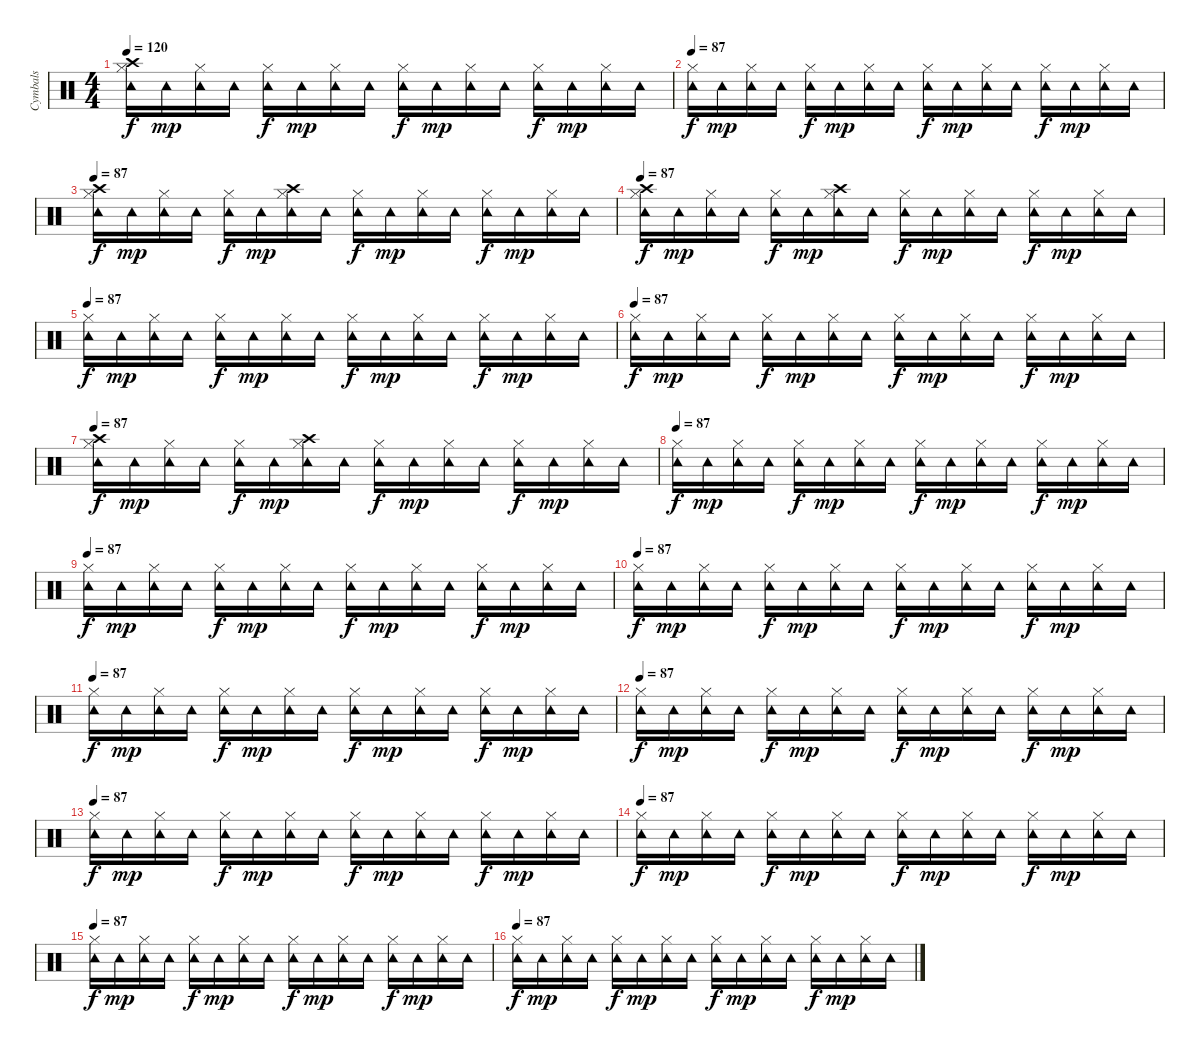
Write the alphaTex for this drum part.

\track ("Cymbals" "Cymbals") {instrument percussion}
\staff {score}
\articulation defaults
\ts (4 4)
\tempo 120
\tempo 87
\tempo 120
\clef neutral
\ks c
("Crash high (hit)" "Hi-Hat (closed)" "Tambourine (hit)").16{dy f} "Tambourine (hit)".16{dy mp} ("Hi-Hat (closed)" "Tambourine (hit)").16 "Tambourine (hit)".16 ("Hi-Hat (closed)" "Tambourine (hit)").16{dy f} "Tambourine (hit)".16{dy mp} ("Hi-Hat (closed)" "Tambourine (hit)").16 "Tambourine (hit)".16 ("Hi-Hat (closed)" "Tambourine (hit)").16{dy f} "Tambourine (hit)".16{dy mp} ("Hi-Hat (closed)" "Tambourine (hit)").16 "Tambourine (hit)".16 ("Hi-Hat (closed)" "Tambourine (hit)").16{dy f} "Tambourine (hit)".16{dy mp} ("Hi-Hat (closed)" "Tambourine (hit)").16 "Tambourine (hit)".16 |
\tempo 87
("Hi-Hat (closed)" "Tambourine (hit)").16{dy f} "Tambourine (hit)".16{dy mp} ("Hi-Hat (closed)" "Tambourine (hit)").16 "Tambourine (hit)".16 ("Hi-Hat (closed)" "Tambourine (hit)").16{dy f} "Tambourine (hit)".16{dy mp} ("Hi-Hat (closed)" "Tambourine (hit)").16 "Tambourine (hit)".16 ("Hi-Hat (closed)" "Tambourine (hit)").16{dy f} "Tambourine (hit)".16{dy mp} ("Hi-Hat (closed)" "Tambourine (hit)").16 "Tambourine (hit)".16 ("Hi-Hat (closed)" "Tambourine (hit)").16{dy f} "Tambourine (hit)".16{dy mp} ("Hi-Hat (closed)" "Tambourine (hit)").16 "Tambourine (hit)".16 |
\tempo 87
("Crash high (hit)" "Hi-Hat (closed)" "Tambourine (hit)").16{dy f} "Tambourine (hit)".16{dy mp} ("Hi-Hat (closed)" "Tambourine (hit)").16 "Tambourine (hit)".16 ("Hi-Hat (closed)" "Tambourine (hit)").16{dy f} "Tambourine (hit)".16{dy mp} ("Crash high (hit)" "Hi-Hat (closed)" "Tambourine (hit)").16 "Tambourine (hit)".16 ("Hi-Hat (closed)" "Tambourine (hit)").16{dy f} "Tambourine (hit)".16{dy mp} ("Hi-Hat (closed)" "Tambourine (hit)").16 "Tambourine (hit)".16 ("Hi-Hat (closed)" "Tambourine (hit)").16{dy f} "Tambourine (hit)".16{dy mp} ("Hi-Hat (closed)" "Tambourine (hit)").16 "Tambourine (hit)".16 |
\tempo 87
("Crash high (hit)" "Hi-Hat (closed)" "Tambourine (hit)").16{dy f} "Tambourine (hit)".16{dy mp} ("Hi-Hat (closed)" "Tambourine (hit)").16 "Tambourine (hit)".16 ("Hi-Hat (closed)" "Tambourine (hit)").16{dy f} "Tambourine (hit)".16{dy mp} ("Crash high (hit)" "Hi-Hat (closed)" "Tambourine (hit)").16 "Tambourine (hit)".16 ("Hi-Hat (closed)" "Tambourine (hit)").16{dy f} "Tambourine (hit)".16{dy mp} ("Hi-Hat (closed)" "Tambourine (hit)").16 "Tambourine (hit)".16 ("Hi-Hat (closed)" "Tambourine (hit)").16{dy f} "Tambourine (hit)".16{dy mp} ("Hi-Hat (closed)" "Tambourine (hit)").16 "Tambourine (hit)".16 |
\tempo 87
("Hi-Hat (closed)" "Tambourine (hit)").16{dy f} "Tambourine (hit)".16{dy mp} ("Hi-Hat (closed)" "Tambourine (hit)").16 "Tambourine (hit)".16 ("Hi-Hat (closed)" "Tambourine (hit)").16{dy f} "Tambourine (hit)".16{dy mp} ("Hi-Hat (closed)" "Tambourine (hit)").16 "Tambourine (hit)".16 ("Hi-Hat (closed)" "Tambourine (hit)").16{dy f} "Tambourine (hit)".16{dy mp} ("Hi-Hat (closed)" "Tambourine (hit)").16 "Tambourine (hit)".16 ("Hi-Hat (closed)" "Tambourine (hit)").16{dy f} "Tambourine (hit)".16{dy mp} ("Hi-Hat (closed)" "Tambourine (hit)").16 "Tambourine (hit)".16 |
\tempo 87
("Hi-Hat (closed)" "Tambourine (hit)").16{dy f} "Tambourine (hit)".16{dy mp} ("Hi-Hat (closed)" "Tambourine (hit)").16 "Tambourine (hit)".16 ("Hi-Hat (closed)" "Tambourine (hit)").16{dy f} "Tambourine (hit)".16{dy mp} ("Hi-Hat (closed)" "Tambourine (hit)").16 "Tambourine (hit)".16 ("Hi-Hat (closed)" "Tambourine (hit)").16{dy f} "Tambourine (hit)".16{dy mp} ("Hi-Hat (closed)" "Tambourine (hit)").16 "Tambourine (hit)".16 ("Hi-Hat (closed)" "Tambourine (hit)").16{dy f} "Tambourine (hit)".16{dy mp} ("Hi-Hat (closed)" "Tambourine (hit)").16 "Tambourine (hit)".16 |
\tempo 87
("Crash high (hit)" "Hi-Hat (closed)" "Tambourine (hit)").16{dy f} "Tambourine (hit)".16{dy mp} ("Hi-Hat (closed)" "Tambourine (hit)").16 "Tambourine (hit)".16 ("Hi-Hat (closed)" "Tambourine (hit)").16{dy f} "Tambourine (hit)".16{dy mp} ("Crash high (hit)" "Hi-Hat (closed)" "Tambourine (hit)").16 "Tambourine (hit)".16 ("Hi-Hat (closed)" "Tambourine (hit)").16{dy f} "Tambourine (hit)".16{dy mp} ("Hi-Hat (closed)" "Tambourine (hit)").16 "Tambourine (hit)".16 ("Hi-Hat (closed)" "Tambourine (hit)").16{dy f} "Tambourine (hit)".16{dy mp} ("Hi-Hat (closed)" "Tambourine (hit)").16 "Tambourine (hit)".16 |
\tempo 87
("Hi-Hat (closed)" "Tambourine (hit)").16{dy f} "Tambourine (hit)".16{dy mp} ("Hi-Hat (closed)" "Tambourine (hit)").16 "Tambourine (hit)".16 ("Hi-Hat (closed)" "Tambourine (hit)").16{dy f} "Tambourine (hit)".16{dy mp} ("Hi-Hat (closed)" "Tambourine (hit)").16 "Tambourine (hit)".16 ("Hi-Hat (closed)" "Tambourine (hit)").16{dy f} "Tambourine (hit)".16{dy mp} ("Hi-Hat (closed)" "Tambourine (hit)").16 "Tambourine (hit)".16 ("Hi-Hat (closed)" "Tambourine (hit)").16{dy f} "Tambourine (hit)".16{dy mp} ("Hi-Hat (closed)" "Tambourine (hit)").16 "Tambourine (hit)".16 |
\tempo 87
("Hi-Hat (closed)" "Tambourine (hit)").16{dy f} "Tambourine (hit)".16{dy mp} ("Hi-Hat (closed)" "Tambourine (hit)").16 "Tambourine (hit)".16 ("Hi-Hat (closed)" "Tambourine (hit)").16{dy f} "Tambourine (hit)".16{dy mp} ("Hi-Hat (closed)" "Tambourine (hit)").16 "Tambourine (hit)".16 ("Hi-Hat (closed)" "Tambourine (hit)").16{dy f} "Tambourine (hit)".16{dy mp} ("Hi-Hat (closed)" "Tambourine (hit)").16 "Tambourine (hit)".16 ("Hi-Hat (closed)" "Tambourine (hit)").16{dy f} "Tambourine (hit)".16{dy mp} ("Hi-Hat (closed)" "Tambourine (hit)").16 "Tambourine (hit)".16 |
\tempo 87
("Hi-Hat (closed)" "Tambourine (hit)").16{dy f} "Tambourine (hit)".16{dy mp} ("Hi-Hat (closed)" "Tambourine (hit)").16 "Tambourine (hit)".16 ("Hi-Hat (closed)" "Tambourine (hit)").16{dy f} "Tambourine (hit)".16{dy mp} ("Hi-Hat (closed)" "Tambourine (hit)").16 "Tambourine (hit)".16 ("Hi-Hat (closed)" "Tambourine (hit)").16{dy f} "Tambourine (hit)".16{dy mp} ("Hi-Hat (closed)" "Tambourine (hit)").16 "Tambourine (hit)".16 ("Hi-Hat (closed)" "Tambourine (hit)").16{dy f} "Tambourine (hit)".16{dy mp} ("Hi-Hat (closed)" "Tambourine (hit)").16 "Tambourine (hit)".16 |
\tempo 87
("Hi-Hat (closed)" "Tambourine (hit)").16{dy f} "Tambourine (hit)".16{dy mp} ("Hi-Hat (closed)" "Tambourine (hit)").16 "Tambourine (hit)".16 ("Hi-Hat (closed)" "Tambourine (hit)").16{dy f} "Tambourine (hit)".16{dy mp} ("Hi-Hat (closed)" "Tambourine (hit)").16 "Tambourine (hit)".16 ("Hi-Hat (closed)" "Tambourine (hit)").16{dy f} "Tambourine (hit)".16{dy mp} ("Hi-Hat (closed)" "Tambourine (hit)").16 "Tambourine (hit)".16 ("Hi-Hat (closed)" "Tambourine (hit)").16{dy f} "Tambourine (hit)".16{dy mp} ("Hi-Hat (closed)" "Tambourine (hit)").16 "Tambourine (hit)".16 |
\tempo 87
("Hi-Hat (closed)" "Tambourine (hit)").16{dy f} "Tambourine (hit)".16{dy mp} ("Hi-Hat (closed)" "Tambourine (hit)").16 "Tambourine (hit)".16 ("Hi-Hat (closed)" "Tambourine (hit)").16{dy f} "Tambourine (hit)".16{dy mp} ("Hi-Hat (closed)" "Tambourine (hit)").16 "Tambourine (hit)".16 ("Hi-Hat (closed)" "Tambourine (hit)").16{dy f} "Tambourine (hit)".16{dy mp} ("Hi-Hat (closed)" "Tambourine (hit)").16 "Tambourine (hit)".16 ("Hi-Hat (closed)" "Tambourine (hit)").16{dy f} "Tambourine (hit)".16{dy mp} ("Hi-Hat (closed)" "Tambourine (hit)").16 "Tambourine (hit)".16 |
\tempo 87
("Hi-Hat (closed)" "Tambourine (hit)").16{dy f} "Tambourine (hit)".16{dy mp} ("Hi-Hat (closed)" "Tambourine (hit)").16 "Tambourine (hit)".16 ("Hi-Hat (closed)" "Tambourine (hit)").16{dy f} "Tambourine (hit)".16{dy mp} ("Hi-Hat (closed)" "Tambourine (hit)").16 "Tambourine (hit)".16 ("Hi-Hat (closed)" "Tambourine (hit)").16{dy f} "Tambourine (hit)".16{dy mp} ("Hi-Hat (closed)" "Tambourine (hit)").16 "Tambourine (hit)".16 ("Hi-Hat (closed)" "Tambourine (hit)").16{dy f} "Tambourine (hit)".16{dy mp} ("Hi-Hat (closed)" "Tambourine (hit)").16 "Tambourine (hit)".16 |
\tempo 87
("Hi-Hat (closed)" "Tambourine (hit)").16{dy f} "Tambourine (hit)".16{dy mp} ("Hi-Hat (closed)" "Tambourine (hit)").16 "Tambourine (hit)".16 ("Hi-Hat (closed)" "Tambourine (hit)").16{dy f} "Tambourine (hit)".16{dy mp} ("Hi-Hat (closed)" "Tambourine (hit)").16 "Tambourine (hit)".16 ("Hi-Hat (closed)" "Tambourine (hit)").16{dy f} "Tambourine (hit)".16{dy mp} ("Hi-Hat (closed)" "Tambourine (hit)").16 "Tambourine (hit)".16 ("Hi-Hat (closed)" "Tambourine (hit)").16{dy f} "Tambourine (hit)".16{dy mp} ("Hi-Hat (closed)" "Tambourine (hit)").16 "Tambourine (hit)".16 |
\tempo 87
("Hi-Hat (closed)" "Tambourine (hit)").16{dy f} "Tambourine (hit)".16{dy mp} ("Hi-Hat (closed)" "Tambourine (hit)").16 "Tambourine (hit)".16 ("Hi-Hat (closed)" "Tambourine (hit)").16{dy f} "Tambourine (hit)".16{dy mp} ("Hi-Hat (closed)" "Tambourine (hit)").16 "Tambourine (hit)".16 ("Hi-Hat (closed)" "Tambourine (hit)").16{dy f} "Tambourine (hit)".16{dy mp} ("Hi-Hat (closed)" "Tambourine (hit)").16 "Tambourine (hit)".16 ("Hi-Hat (closed)" "Tambourine (hit)").16{dy f} "Tambourine (hit)".16{dy mp} ("Hi-Hat (closed)" "Tambourine (hit)").16 "Tambourine (hit)".16 |
\tempo 87
("Hi-Hat (closed)" "Tambourine (hit)").16{dy f} "Tambourine (hit)".16{dy mp} ("Hi-Hat (closed)" "Tambourine (hit)").16 "Tambourine (hit)".16 ("Hi-Hat (closed)" "Tambourine (hit)").16{dy f} "Tambourine (hit)".16{dy mp} ("Hi-Hat (closed)" "Tambourine (hit)").16 "Tambourine (hit)".16 ("Hi-Hat (closed)" "Tambourine (hit)").16{dy f} "Tambourine (hit)".16{dy mp} ("Hi-Hat (closed)" "Tambourine (hit)").16 "Tambourine (hit)".16 ("Hi-Hat (closed)" "Tambourine (hit)").16{dy f} "Tambourine (hit)".16{dy mp} ("Hi-Hat (closed)" "Tambourine (hit)").16 "Tambourine (hit)".16
